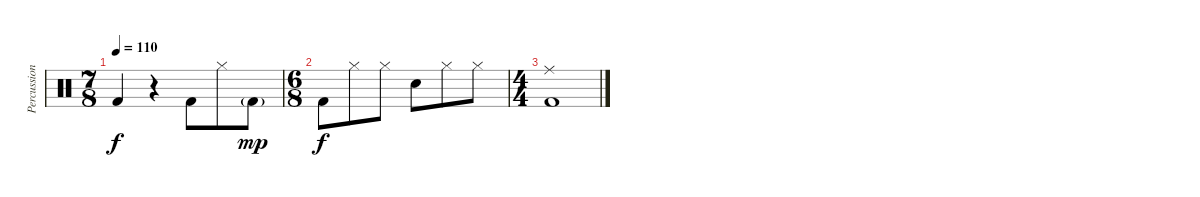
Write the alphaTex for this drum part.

\track ("Percussion" "Percussion") {instrument percussion}
\staff {score}
\articulation defaults
\ts (7 8)
\tempo 110
\clef neutral
\ks c "Kick (hit) 2".4{dy f}
r.4 "Kick (hit) 2".8 "Hi-Hat (closed)".8 "Kick (hit) 2"{g}.8{dy mp} |
\ts (6 8)
"Kick (hit) 2".8{dy f} "Hi-Hat (closed)".8 "Hi-Hat (closed)".8 "Snare (hit) 2".8 "Hi-Hat (closed)".8 "Hi-Hat (closed)".8 |
\ts (4 4)
("Ride (middle)" "Kick (hit) 2").1
